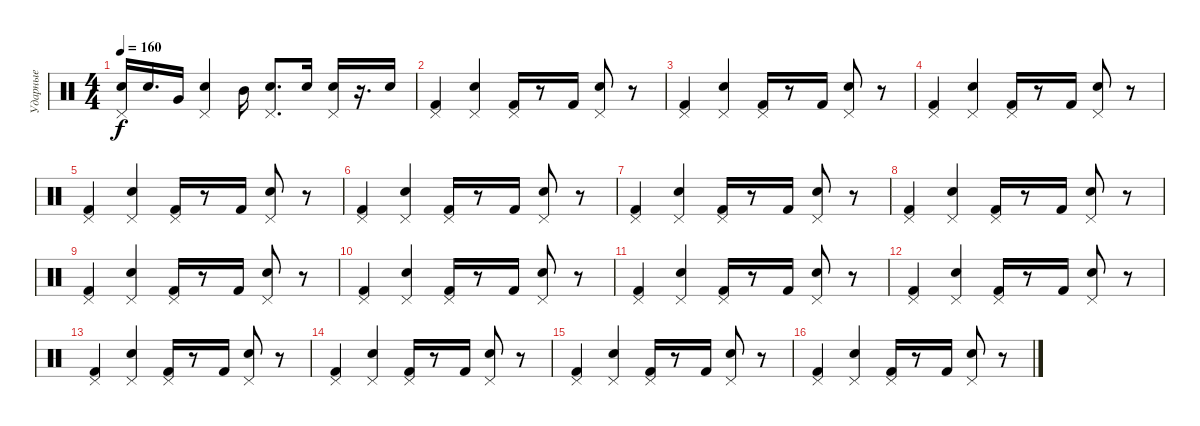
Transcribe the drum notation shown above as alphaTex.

\track ("Ударные" "Ударные") {instrument percussion}
\staff {score}
\articulation defaults
\ts (4 4)
\tempo 160
\clef neutral
\ks c
("Pedal Hi-Hat (hit)" "Snare (hit) 2").16{dy f} "Snare (hit) 2".16{d} "Very Low Tom (hit)".16 ("Pedal Hi-Hat (hit)" "Snare (hit) 2").4 "Mid Tom (hit)".16 ("Pedal Hi-Hat (hit)" "Snare (hit) 2").8{d} "Snare (hit) 2".16 ("Pedal Hi-Hat (hit)" "Snare (hit) 2").16 r.16{d} "Snare (hit) 2".16 |
("Pedal Hi-Hat (hit)" "Kick (hit) 2").4 ("Pedal Hi-Hat (hit)" "Snare (hit) 2").4 ("Pedal Hi-Hat (hit)" "Kick (hit) 2").16 r.8 "Kick (hit) 2".16 ("Pedal Hi-Hat (hit)" "Snare (hit) 2").8 r.8 |
("Pedal Hi-Hat (hit)" "Kick (hit) 2").4 ("Pedal Hi-Hat (hit)" "Snare (hit) 2").4 ("Pedal Hi-Hat (hit)" "Kick (hit) 2").16 r.8 "Kick (hit) 2".16 ("Pedal Hi-Hat (hit)" "Snare (hit) 2").8 r.8 |
("Pedal Hi-Hat (hit)" "Kick (hit) 2").4 ("Pedal Hi-Hat (hit)" "Snare (hit) 2").4 ("Pedal Hi-Hat (hit)" "Kick (hit) 2").16 r.8 "Kick (hit) 2".16 ("Pedal Hi-Hat (hit)" "Snare (hit) 2").8 r.8 |
("Pedal Hi-Hat (hit)" "Kick (hit) 2").4 ("Pedal Hi-Hat (hit)" "Snare (hit) 2").4 ("Pedal Hi-Hat (hit)" "Kick (hit) 2").16 r.8 "Kick (hit) 2".16 ("Pedal Hi-Hat (hit)" "Snare (hit) 2").8 r.8 |
("Pedal Hi-Hat (hit)" "Kick (hit) 2").4 ("Pedal Hi-Hat (hit)" "Snare (hit) 2").4 ("Pedal Hi-Hat (hit)" "Kick (hit) 2").16 r.8 "Kick (hit) 2".16 ("Pedal Hi-Hat (hit)" "Snare (hit) 2").8 r.8 |
("Pedal Hi-Hat (hit)" "Kick (hit) 2").4 ("Pedal Hi-Hat (hit)" "Snare (hit) 2").4 ("Pedal Hi-Hat (hit)" "Kick (hit) 2").16 r.8 "Kick (hit) 2".16 ("Pedal Hi-Hat (hit)" "Snare (hit) 2").8 r.8 |
("Pedal Hi-Hat (hit)" "Kick (hit) 2").4 ("Pedal Hi-Hat (hit)" "Snare (hit) 2").4 ("Pedal Hi-Hat (hit)" "Kick (hit) 2").16 r.8 "Kick (hit) 2".16 ("Pedal Hi-Hat (hit)" "Snare (hit) 2").8 r.8 |
("Pedal Hi-Hat (hit)" "Kick (hit) 2").4 ("Pedal Hi-Hat (hit)" "Snare (hit) 2").4 ("Pedal Hi-Hat (hit)" "Kick (hit) 2").16 r.8 "Kick (hit) 2".16 ("Pedal Hi-Hat (hit)" "Snare (hit) 2").8 r.8 |
("Pedal Hi-Hat (hit)" "Kick (hit) 2").4 ("Pedal Hi-Hat (hit)" "Snare (hit) 2").4 ("Pedal Hi-Hat (hit)" "Kick (hit) 2").16 r.8 "Kick (hit) 2".16 ("Pedal Hi-Hat (hit)" "Snare (hit) 2").8 r.8 |
("Pedal Hi-Hat (hit)" "Kick (hit) 2").4 ("Pedal Hi-Hat (hit)" "Snare (hit) 2").4 ("Pedal Hi-Hat (hit)" "Kick (hit) 2").16 r.8 "Kick (hit) 2".16 ("Pedal Hi-Hat (hit)" "Snare (hit) 2").8 r.8 |
("Pedal Hi-Hat (hit)" "Kick (hit) 2").4 ("Pedal Hi-Hat (hit)" "Snare (hit) 2").4 ("Pedal Hi-Hat (hit)" "Kick (hit) 2").16 r.8 "Kick (hit) 2".16 ("Pedal Hi-Hat (hit)" "Snare (hit) 2").8 r.8 |
("Pedal Hi-Hat (hit)" "Kick (hit) 2").4 ("Pedal Hi-Hat (hit)" "Snare (hit) 2").4 ("Pedal Hi-Hat (hit)" "Kick (hit) 2").16 r.8 "Kick (hit) 2".16 ("Pedal Hi-Hat (hit)" "Snare (hit) 2").8 r.8 |
("Pedal Hi-Hat (hit)" "Kick (hit) 2").4 ("Pedal Hi-Hat (hit)" "Snare (hit) 2").4 ("Pedal Hi-Hat (hit)" "Kick (hit) 2").16 r.8 "Kick (hit) 2".16 ("Pedal Hi-Hat (hit)" "Snare (hit) 2").8 r.8 |
("Pedal Hi-Hat (hit)" "Kick (hit) 2").4 ("Pedal Hi-Hat (hit)" "Snare (hit) 2").4 ("Pedal Hi-Hat (hit)" "Kick (hit) 2").16 r.8 "Kick (hit) 2".16 ("Pedal Hi-Hat (hit)" "Snare (hit) 2").8 r.8 |
("Pedal Hi-Hat (hit)" "Kick (hit) 2").4 ("Pedal Hi-Hat (hit)" "Snare (hit) 2").4 ("Pedal Hi-Hat (hit)" "Kick (hit) 2").16 r.8 "Kick (hit) 2".16 ("Pedal Hi-Hat (hit)" "Snare (hit) 2").8 r.8
